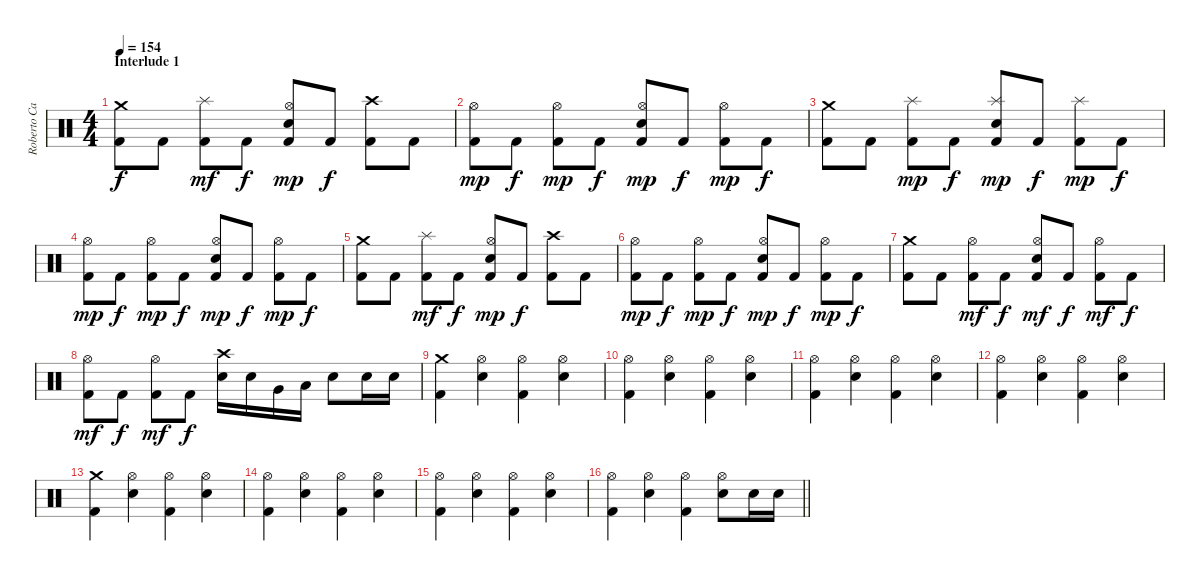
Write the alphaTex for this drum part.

\track ("Roberto Cappa - Drums" "Roberto Ca") {instrument percussion}
\staff
\articulation defaults
\ts (4 4)
\section ("" "Interlude 1")
\tempo 154
\clef neutral
\ks c
("Crash medium (hit)" "Kick (hit) 2").8{dy f} "Kick (hit) 2".8 ("Splash (hit)" "Kick (hit) 2").8{dy mf} "Kick (hit) 2".8{dy f} ("Hi-Hat (open)" "Kick (hit) 2" "Electric Snare (hit)").8{dy mp} "Kick (hit) 2".8{dy f} ("Crash high (hit)" "Kick (hit) 2").8 "Kick (hit) 2".8 |
("Hi-Hat (open)" "Kick (hit) 2").8{dy mp} "Kick (hit) 2".8{dy f} ("Hi-Hat (open)" "Kick (hit) 2").8{dy mp} "Kick (hit) 2".8{dy f} ("Hi-Hat (open)" "Kick (hit) 2" "Electric Snare (hit)").8{dy mp} "Kick (hit) 2".8{dy f} ("Hi-Hat (open)" "Kick (hit) 2").8{dy mp} "Kick (hit) 2".8{dy f} |
("Crash medium (hit)" "Kick (hit) 2").8 "Kick (hit) 2".8 ("Splash (hit)" "Kick (hit) 2").8{dy mp} "Kick (hit) 2".8{dy f} ("Splash (hit)" "Kick (hit) 2" "Electric Snare (hit)").8{dy mp} "Kick (hit) 2".8{dy f} ("Splash (hit)" "Kick (hit) 2").8{dy mp} "Kick (hit) 2".8{dy f} |
("Hi-Hat (open)" "Kick (hit) 2").8{dy mp} "Kick (hit) 2".8{dy f} ("Hi-Hat (open)" "Kick (hit) 2").8{dy mp} "Kick (hit) 2".8{dy f} ("Hi-Hat (open)" "Kick (hit) 2" "Electric Snare (hit)").8{dy mp} "Kick (hit) 2".8{dy f} ("Hi-Hat (open)" "Kick (hit) 2").8{dy mp} "Kick (hit) 2".8{dy f} |
("Crash medium (hit)" "Kick (hit) 2").8 "Kick (hit) 2".8 ("Splash (hit)" "Kick (hit) 2").8{dy mf} "Kick (hit) 2".8{dy f} ("Hi-Hat (open)" "Kick (hit) 2" "Electric Snare (hit)").8{dy mp} "Kick (hit) 2".8{dy f} ("Crash high (hit)" "Kick (hit) 2").8 "Kick (hit) 2".8 |
("Hi-Hat (open)" "Kick (hit) 2").8{dy mp} "Kick (hit) 2".8{dy f} ("Hi-Hat (open)" "Kick (hit) 2").8{dy mp} "Kick (hit) 2".8{dy f} ("Hi-Hat (open)" "Kick (hit) 2" "Electric Snare (hit)").8{dy mp} "Kick (hit) 2".8{dy f} ("Hi-Hat (open)" "Kick (hit) 2").8{dy mp} "Kick (hit) 2".8{dy f} |
("Crash medium (hit)" "Kick (hit) 2").8 "Kick (hit) 2".8 ("Hi-Hat (open)" "Kick (hit) 2").8{dy mf} "Kick (hit) 2".8{dy f} ("Hi-Hat (open)" "Kick (hit) 2" "Electric Snare (hit)").8{dy mf} "Kick (hit) 2".8{dy f} ("Hi-Hat (open)" "Kick (hit) 2").8{dy mf} "Kick (hit) 2".8{dy f} |
("Hi-Hat (open)" "Kick (hit) 2").8{dy mf} "Kick (hit) 2".8{dy f} ("Hi-Hat (open)" "Kick (hit) 2").8{dy mf} "Kick (hit) 2".8{dy f} ("Crash high (hit)" "Electric Snare (hit)").16 "Electric Snare (hit)".16 "Very Low Tom (hit)".16 "Low Floor Tom (hit)".16 "Electric Snare (hit)".8 "Electric Snare (hit)".16 "Electric Snare (hit)".16 |
("Crash medium (hit)" "Kick (hit) 2").4 ("Hi-Hat (open)" "Electric Snare (hit)").4 ("Hi-Hat (open)" "Kick (hit) 2").4 ("Hi-Hat (open)" "Electric Snare (hit)").4 |
("Hi-Hat (open)" "Kick (hit) 2").4 ("Hi-Hat (open)" "Electric Snare (hit)").4 ("Hi-Hat (open)" "Kick (hit) 2").4 ("Hi-Hat (open)" "Electric Snare (hit)").4 |
("Hi-Hat (open)" "Kick (hit) 2").4 ("Hi-Hat (open)" "Electric Snare (hit)").4 ("Hi-Hat (open)" "Kick (hit) 2").4 ("Hi-Hat (open)" "Electric Snare (hit)").4 |
("Hi-Hat (open)" "Kick (hit) 2").4 ("Hi-Hat (open)" "Electric Snare (hit)").4 ("Hi-Hat (open)" "Kick (hit) 2").4 ("Hi-Hat (open)" "Electric Snare (hit)").4 |
("Crash medium (hit)" "Kick (hit) 2").4 ("Hi-Hat (open)" "Electric Snare (hit)").4 ("Hi-Hat (open)" "Kick (hit) 2").4 ("Hi-Hat (open)" "Electric Snare (hit)").4 |
("Hi-Hat (open)" "Kick (hit) 2").4 ("Hi-Hat (open)" "Electric Snare (hit)").4 ("Hi-Hat (open)" "Kick (hit) 2").4 ("Hi-Hat (open)" "Electric Snare (hit)").4 |
("Hi-Hat (open)" "Kick (hit) 2").4 ("Hi-Hat (open)" "Electric Snare (hit)").4 ("Hi-Hat (open)" "Kick (hit) 2").4 ("Hi-Hat (open)" "Electric Snare (hit)").4 |
\barLineRight lightlight
("Hi-Hat (open)" "Kick (hit) 2").4 ("Hi-Hat (open)" "Electric Snare (hit)").4 ("Hi-Hat (open)" "Kick (hit) 2").4 ("Hi-Hat (open)" "Electric Snare (hit)").8 "Electric Snare (hit)".16 "Electric Snare (hit)".16
